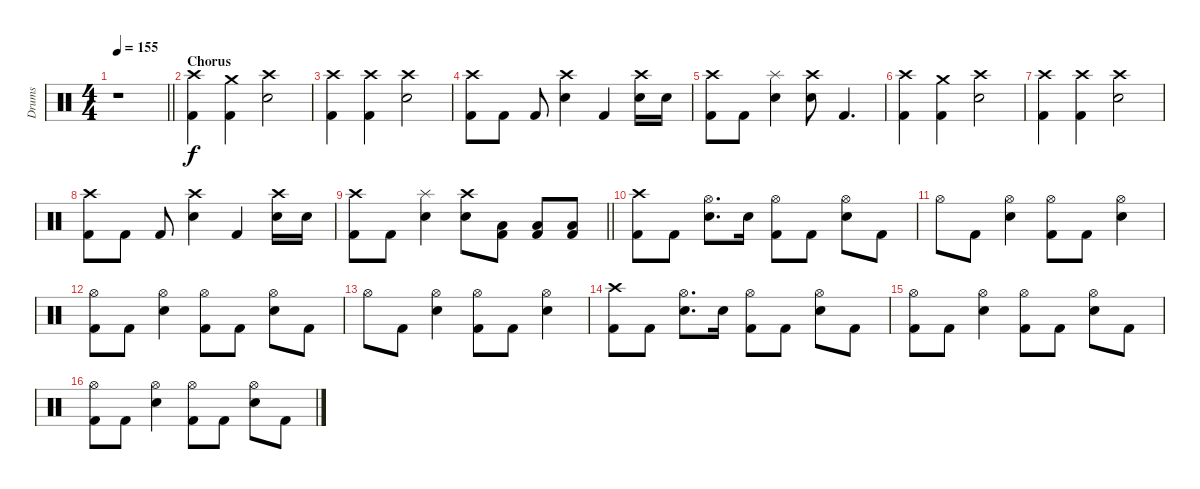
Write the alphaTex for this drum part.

\track ("Drums" "Drums") {instrument percussion}
\staff {score}
\articulation defaults
\ts (4 4)
\tempo 155
\clef neutral
\barLineRight lightlight
\ks c
r.1{dy f} |
\section ("" "Chorus")
("Crash high (hit)" "Kick (hit) 2").4 ("Crash medium (hit)" "Kick (hit) 2").4 ("Crash high (hit)" "Snare (hit) 2").2 |
("Crash high (hit)" "Kick (hit) 2").4 ("Crash high (hit)" "Kick (hit) 2").4 ("Crash high (hit)" "Snare (hit) 2").2 |
("Crash high (hit)" "Kick (hit) 2").8 "Kick (hit) 2".8 "Kick (hit) 2".8 ("Crash high (hit)" "Snare (hit) 2").4 "Kick (hit) 2".4 ("Crash high (hit)" "Snare (hit) 2").16 "Snare (hit) 2".16 |
("Crash high (hit)" "Kick (hit) 2").8 "Kick (hit) 2".8 ("Splash (hit)" "Snare (hit) 2").4 ("Crash high (hit)" "Snare (hit) 2").8 "Kick (hit) 2".4{d} |
("Crash high (hit)" "Kick (hit) 2").4 ("Crash medium (hit)" "Kick (hit) 2").4 ("Crash high (hit)" "Snare (hit) 2").2 |
("Crash high (hit)" "Kick (hit) 2").4 ("Crash high (hit)" "Kick (hit) 2").4 ("Crash high (hit)" "Snare (hit) 2").2 |
("Crash high (hit)" "Kick (hit) 2").8 "Kick (hit) 2".8 "Kick (hit) 2".8 ("Crash high (hit)" "Snare (hit) 2").4 "Kick (hit) 2".4 ("Crash high (hit)" "Snare (hit) 2").16 "Snare (hit) 2".16 |
\barLineRight lightlight
("Crash high (hit)" "Kick (hit) 2").8 "Kick (hit) 2".8 ("Splash (hit)" "Snare (hit) 2").4 ("Crash high (hit)" "Snare (hit) 2").8 ("Low Tom (hit)" "Kick (hit) 2").8 ("Low Floor Tom (hit)" "Kick (hit) 2").8 ("Low Floor Tom (hit)" "Kick (hit) 2").8 |
("Crash high (hit)" "Kick (hit) 2").8 "Kick (hit) 2".8 ("Hi-Hat (open)" "Snare (hit) 2").8{d} "Snare (hit) 2".16 ("Hi-Hat (open)" "Kick (hit) 2").8 "Kick (hit) 2".8 ("Hi-Hat (open)" "Snare (hit) 2").8 "Kick (hit) 2".8 |
"Hi-Hat (open)".8 "Kick (hit) 2".8 ("Hi-Hat (open)" "Snare (hit) 2").4 ("Hi-Hat (open)" "Kick (hit) 2").8 "Kick (hit) 2".8 ("Hi-Hat (open)" "Snare (hit) 2").4 |
("Hi-Hat (open)" "Kick (hit) 2").8 "Kick (hit) 2".8 ("Hi-Hat (open)" "Snare (hit) 2").4 ("Hi-Hat (open)" "Kick (hit) 2").8 "Kick (hit) 2".8 ("Hi-Hat (open)" "Snare (hit) 2").8 "Kick (hit) 2".8 |
"Hi-Hat (open)".8 "Kick (hit) 2".8 ("Hi-Hat (open)" "Snare (hit) 2").4 ("Hi-Hat (open)" "Kick (hit) 2").8 "Kick (hit) 2".8 ("Hi-Hat (open)" "Snare (hit) 2").4 |
("Crash high (hit)" "Kick (hit) 2").8 "Kick (hit) 2".8 ("Hi-Hat (open)" "Snare (hit) 2").8{d} "Snare (hit) 2".16 ("Hi-Hat (open)" "Kick (hit) 2").8 "Kick (hit) 2".8 ("Hi-Hat (open)" "Snare (hit) 2").8 "Kick (hit) 2".8 |
("Hi-Hat (open)" "Kick (hit) 2").8 "Kick (hit) 2".8 ("Hi-Hat (open)" "Snare (hit) 2").4 ("Hi-Hat (open)" "Kick (hit) 2").8 "Kick (hit) 2".8 ("Hi-Hat (open)" "Snare (hit) 2").8 "Kick (hit) 2".8 |
("Hi-Hat (open)" "Kick (hit) 2").8 "Kick (hit) 2".8 ("Hi-Hat (open)" "Snare (hit) 2").4 ("Hi-Hat (open)" "Kick (hit) 2").8 "Kick (hit) 2".8 ("Hi-Hat (open)" "Snare (hit) 2").8 "Kick (hit) 2".8
